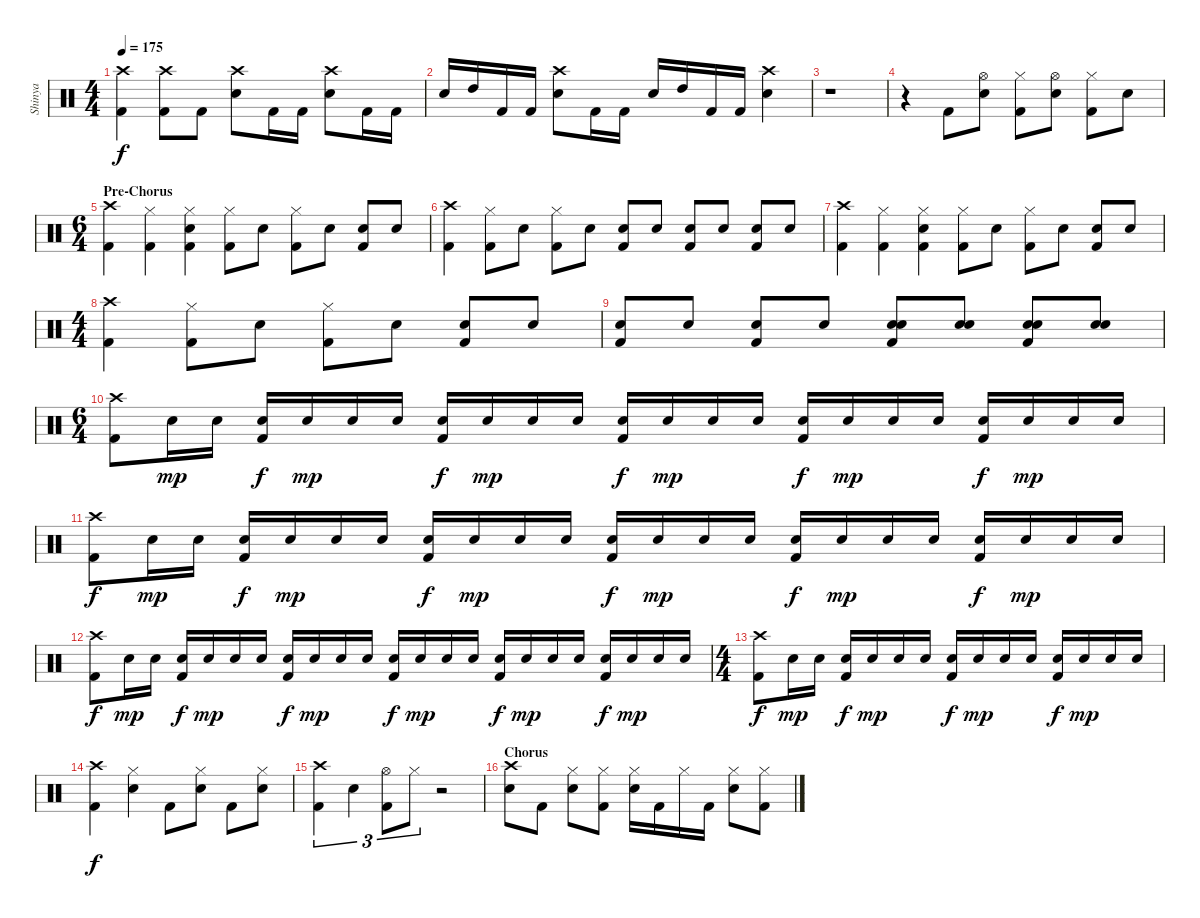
\track ("Shinya" "Shinya") {instrument percussion}
\staff {score}
\articulation defaults
\ts (4 4)
\tempo 175
\clef neutral
\ks c
("Crash high (hit)" "Kick (hit) 2").4{dy f} ("Crash high (hit)" "Kick (hit) 2").8 "Kick (hit) 2".8 ("Crash high (hit)" "Snare (hit) 2").8 "Kick (hit) 2".16 "Kick (hit) 2".16 ("Crash high (hit)" "Snare (hit) 2").8 "Kick (hit) 2".16 "Kick (hit) 2".16 |
"Snare (hit) 2".16 "High Tom (hit)".16 "Kick (hit) 2".16 "Kick (hit) 2".16 ("Crash high (hit)" "Snare (hit) 2").8 "Kick (hit) 2".16 "Kick (hit) 2".16 "Snare (hit) 2".16 "High Tom (hit)".16 "Kick (hit) 2".16 "Kick (hit) 2".16 ("Crash high (hit)" "Snare (hit) 2").4 |
r.1 |
r.4 "Kick (hit) 2".8 ("Snare (hit) 2" "Hi-Hat (open)").8 ("Kick (hit) 2" "Hi-Hat (closed)").8 ("Snare (hit) 2" "Hi-Hat (open)").8 ("Kick (hit) 2" "Hi-Hat (closed)").8 "Snare (hit) 2".8 |
\ts (6 4)
\section ("" "Pre-Chorus")
("Crash high (hit)" "Kick (hit) 2").4 ("Hi-Hat (closed)" "Kick (hit) 2").4 ("Hi-Hat (closed)" "Snare (hit) 2" "Kick (hit) 2").4 ("Kick (hit) 2" "Hi-Hat (closed)").8 "Snare (hit) 2".8 ("Kick (hit) 2" "Hi-Hat (closed)").8 "Snare (hit) 2".8 ("Kick (hit) 2" "Snare (hit) 2").8 "Snare (hit) 2".8 |
("Kick (hit) 2" "Crash high (hit)").4 ("Kick (hit) 2" "Hi-Hat (closed)").8 "Snare (hit) 2".8 ("Kick (hit) 2" "Hi-Hat (closed)").8 "Snare (hit) 2".8 ("Kick (hit) 2" "Snare (hit) 2").8 "Snare (hit) 2".8 ("Kick (hit) 2" "Snare (hit) 2").8 "Snare (hit) 2".8 ("Kick (hit) 2" "Snare (hit) 2").8 "Snare (hit) 2".8 |
("Kick (hit) 2" "Crash high (hit)").4 ("Kick (hit) 2" "Hi-Hat (closed)").4 ("Kick (hit) 2" "Hi-Hat (closed)" "Snare (hit) 2").4 ("Kick (hit) 2" "Hi-Hat (closed)").8 "Snare (hit) 2".8 ("Kick (hit) 2" "Hi-Hat (closed)").8 "Snare (hit) 2".8 ("Kick (hit) 2" "Snare (hit) 2").8 "Snare (hit) 2".8 |
\ts (4 4)
("Crash high (hit)" "Kick (hit) 2").4 ("Kick (hit) 2" "Hi-Hat (closed)").8 "Snare (hit) 2".8 ("Kick (hit) 2" "Hi-Hat (closed)").8 "Snare (hit) 2".8 ("Kick (hit) 2" "Snare (hit) 2").8 "Snare (hit) 2".8 |
("Kick (hit) 2" "Snare (hit) 2").8 "Snare (hit) 2".8 ("Kick (hit) 2" "Snare (hit) 2").8 "Snare (hit) 2".8 ("Kick (hit) 2" "Snare (hit) 2" "Hand Clap (hit)").8 ("Snare (hit) 2" "Hand Clap (hit)").8 ("Kick (hit) 2" "Snare (hit) 2" "Hand Clap (hit)").8 ("Snare (hit) 2" "Hand Clap (hit)").8 |
\ts (6 4)
("Kick (hit) 2" "Crash high (hit)").8 "Snare (hit) 2".16{dy mp} "Snare (hit) 2".16 ("Kick (hit) 2" "Snare (hit) 2").16{dy f} "Snare (hit) 2".16{dy mp} "Snare (hit) 2".16 "Snare (hit) 2".16 ("Kick (hit) 2" "Snare (hit) 2").16{dy f} "Snare (hit) 2".16{dy mp} "Snare (hit) 2".16 "Snare (hit) 2".16 ("Kick (hit) 2" "Snare (hit) 2").16{dy f} "Snare (hit) 2".16{dy mp} "Snare (hit) 2".16 "Snare (hit) 2".16 ("Kick (hit) 2" "Snare (hit) 2").16{dy f} "Snare (hit) 2".16{dy mp} "Snare (hit) 2".16 "Snare (hit) 2".16 ("Kick (hit) 2" "Snare (hit) 2").16{dy f} "Snare (hit) 2".16{dy mp} "Snare (hit) 2".16 "Snare (hit) 2".16 |
("Kick (hit) 2" "Crash high (hit)").8{dy f} "Snare (hit) 2".16{dy mp} "Snare (hit) 2".16 ("Kick (hit) 2" "Snare (hit) 2").16{dy f} "Snare (hit) 2".16{dy mp} "Snare (hit) 2".16 "Snare (hit) 2".16 ("Kick (hit) 2" "Snare (hit) 2").16{dy f} "Snare (hit) 2".16{dy mp} "Snare (hit) 2".16 "Snare (hit) 2".16 ("Kick (hit) 2" "Snare (hit) 2").16{dy f} "Snare (hit) 2".16{dy mp} "Snare (hit) 2".16 "Snare (hit) 2".16 ("Kick (hit) 2" "Snare (hit) 2").16{dy f} "Snare (hit) 2".16{dy mp} "Snare (hit) 2".16 "Snare (hit) 2".16 ("Kick (hit) 2" "Snare (hit) 2").16{dy f} "Snare (hit) 2".16{dy mp} "Snare (hit) 2".16 "Snare (hit) 2".16 |
("Kick (hit) 2" "Crash high (hit)").8{dy f} "Snare (hit) 2".16{dy mp} "Snare (hit) 2".16 ("Kick (hit) 2" "Snare (hit) 2").16{dy f} "Snare (hit) 2".16{dy mp} "Snare (hit) 2".16 "Snare (hit) 2".16 ("Kick (hit) 2" "Snare (hit) 2").16{dy f} "Snare (hit) 2".16{dy mp} "Snare (hit) 2".16 "Snare (hit) 2".16 ("Kick (hit) 2" "Snare (hit) 2").16{dy f} "Snare (hit) 2".16{dy mp} "Snare (hit) 2".16 "Snare (hit) 2".16 ("Kick (hit) 2" "Snare (hit) 2").16{dy f} "Snare (hit) 2".16{dy mp} "Snare (hit) 2".16 "Snare (hit) 2".16 ("Kick (hit) 2" "Snare (hit) 2").16{dy f} "Snare (hit) 2".16{dy mp} "Snare (hit) 2".16 "Snare (hit) 2".16 |
\ts (4 4)
("Kick (hit) 2" "Crash high (hit)").8{dy f} "Snare (hit) 2".16{dy mp} "Snare (hit) 2".16 ("Kick (hit) 2" "Snare (hit) 2").16{dy f} "Snare (hit) 2".16{dy mp} "Snare (hit) 2".16 "Snare (hit) 2".16 ("Kick (hit) 2" "Snare (hit) 2").16{dy f} "Snare (hit) 2".16{dy mp} "Snare (hit) 2".16 "Snare (hit) 2".16 ("Kick (hit) 2" "Snare (hit) 2").16{dy f} "Snare (hit) 2".16{dy mp} "Snare (hit) 2".16 "Snare (hit) 2".16 |
("Crash high (hit)" "Kick (hit) 2").4{dy f} ("Hi-Hat (closed)" "Snare (hit) 2").4 "Kick (hit) 2".8 ("Hi-Hat (closed)" "Snare (hit) 2").8 "Kick (hit) 2".8 ("Hi-Hat (closed)" "Snare (hit) 2").8 |
("Crash high (hit)" "Kick (hit) 2").4{tu (3 2)} "Snare (hit) 2".4{tu (3 2)} ("Hi-Hat (open)" "Kick (hit) 2").8{tu (3 2)} "Hi-Hat (closed)".8{tu (3 2)} r.2 |
\section ("" "Chorus")
("Crash high (hit)" "Snare (hit) 2").8 "Kick (hit) 2".8 ("Hi-Hat (closed)" "Snare (hit) 2").8 ("Hi-Hat (closed)" "Kick (hit) 2").8 ("Hi-Hat (closed)" "Snare (hit) 2").16 "Kick (hit) 2".16 "Hi-Hat (closed)".16 "Kick (hit) 2".16 ("Hi-Hat (closed)" "Snare (hit) 2").8 ("Hi-Hat (closed)" "Kick (hit) 2").8
